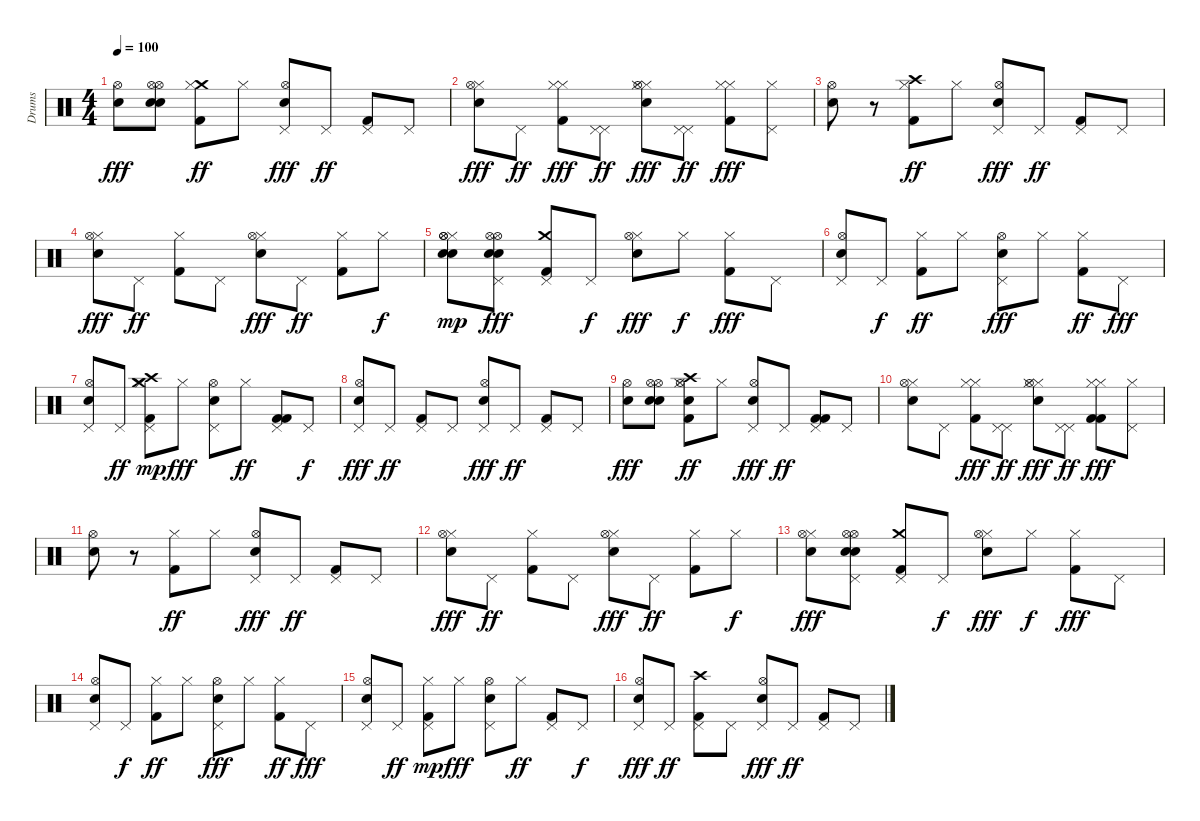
\track ("Drums" "Drums") {instrument percussion}
\staff {score}
\articulation defaults
\ts (4 4)
\tempo 100
\clef neutral
\ks c
("Snare (hit) 2" "Hi-Hat (open)").8{dy fff} ("Snare (hit) 2" "Hi-Hat (open)" "Snare (hit) 2" "Hi-Hat (open)").8 ("Kick (hit) 2" "Crash medium (hit)" "Hi-Hat (closed)").8{dy ff} "Hi-Hat (closed)".8 ("Snare (hit) 2" "Pedal Hi-Hat (hit)" "Hi-Hat (open)").8{dy fff} "Pedal Hi-Hat (hit)".8{dy ff} ("Kick (hit) 2" "Pedal Hi-Hat (hit)").8 "Pedal Hi-Hat (hit)".8 |
("Snare (hit) 2" "Hi-Hat (closed)" "Hi-Hat (open)").8{dy fff} "Pedal Hi-Hat (hit)".8{dy ff} ("Kick (hit) 2" "Hi-Hat (closed)" "Hi-Hat (closed)").8{dy fff} ("Pedal Hi-Hat (hit)" "Pedal Hi-Hat (hit)").8{dy ff} ("Snare (hit) 2" "Hi-Hat (closed)" "Hi-Hat (closed)" "Hi-Hat (open)").8{dy fff} ("Pedal Hi-Hat (hit)" "Pedal Hi-Hat (hit)").8{dy ff} ("Kick (hit) 2" "Hi-Hat (closed)" "Hi-Hat (closed)").8{dy fff} ("Hi-Hat (closed)" "Pedal Hi-Hat (hit)").8 |
("Snare (hit) 2" "Hi-Hat (open)").8 r.8 ("Kick (hit) 2" "Crash high (hit)" "Hi-Hat (closed)").8{dy ff} "Hi-Hat (closed)".8 ("Snare (hit) 2" "Pedal Hi-Hat (hit)" "Hi-Hat (open)").8{dy fff} "Pedal Hi-Hat (hit)".8{dy ff} ("Kick (hit) 2" "Pedal Hi-Hat (hit)").8 "Pedal Hi-Hat (hit)".8 |
("Snare (hit) 2" "Hi-Hat (closed)" "Hi-Hat (open)").8{dy fff} "Pedal Hi-Hat (hit)".8{dy ff} ("Kick (hit) 2" "Hi-Hat (closed)").8 "Pedal Hi-Hat (hit)".8 ("Snare (hit) 2" "Hi-Hat (closed)" "Hi-Hat (open)").8{dy fff} "Pedal Hi-Hat (hit)".8{dy ff} ("Kick (hit) 2" "Hi-Hat (closed)").8 "Hi-Hat (closed)".8{dy f} |
("Snare (hit) 2" "Hi-Hat (closed)" "Hi-Hat (open)" "Snare (hit) 2" "Hi-Hat (open)").8{dy mp} ("Snare (hit) 2" "Pedal Hi-Hat (hit)" "Hi-Hat (open)" "Snare (hit) 2" "Hi-Hat (open)").8{dy fff} ("Kick (hit) 2" "Crash medium (hit)" "Pedal Hi-Hat (hit)").8 "Pedal Hi-Hat (hit)".8{dy f} ("Snare (hit) 2" "Hi-Hat (closed)" "Hi-Hat (open)").8{dy fff} "Hi-Hat (closed)".8{dy f} ("Kick (hit) 2" "Hi-Hat (closed)").8{dy fff} "Pedal Hi-Hat (hit)".8 |
("Snare (hit) 2" "Pedal Hi-Hat (hit)" "Hi-Hat (open)").8 "Pedal Hi-Hat (hit)".8{dy f} ("Kick (hit) 2" "Hi-Hat (closed)").8{dy ff} "Hi-Hat (closed)".8 ("Snare (hit) 2" "Pedal Hi-Hat (hit)" "Hi-Hat (open)").8{dy fff} "Hi-Hat (closed)".8 ("Kick (hit) 2" "Hi-Hat (closed)").8{dy ff} "Pedal Hi-Hat (hit)".8{dy fff} |
("Snare (hit) 2" "Pedal Hi-Hat (hit)" "Hi-Hat (open)").8 "Pedal Hi-Hat (hit)".8{dy ff} ("Kick (hit) 2" "Crash medium (hit)" "Crash high (hit)" "Hi-Hat (closed)" "Pedal Hi-Hat (hit)").8{dy mp} "Hi-Hat (closed)".8{dy fff} ("Snare (hit) 2" "Pedal Hi-Hat (hit)" "Hi-Hat (open)").8 "Hi-Hat (closed)".8{dy ff} ("Kick (hit) 2" "Kick (hit) 2" "Pedal Hi-Hat (hit)").8 "Pedal Hi-Hat (hit)".8{dy f} |
("Snare (hit) 2" "Pedal Hi-Hat (hit)" "Hi-Hat (open)").8{dy fff} "Pedal Hi-Hat (hit)".8{dy ff} ("Kick (hit) 2" "Pedal Hi-Hat (hit)").8 "Pedal Hi-Hat (hit)".8 ("Snare (hit) 2" "Pedal Hi-Hat (hit)" "Hi-Hat (open)").8{dy fff} "Pedal Hi-Hat (hit)".8{dy ff} ("Kick (hit) 2" "Pedal Hi-Hat (hit)").8 "Pedal Hi-Hat (hit)".8 |
("Snare (hit) 2" "Hi-Hat (open)").8{dy fff} ("Snare (hit) 2" "Hi-Hat (open)" "Snare (hit) 2" "Hi-Hat (open)").8 ("Snare (hit) 2" "Kick (hit) 2" "Crash high (hit)" "Hi-Hat (closed)" "Hi-Hat (open)").8{dy ff} "Hi-Hat (closed)".8 ("Snare (hit) 2" "Pedal Hi-Hat (hit)" "Hi-Hat (open)").8{dy fff} "Pedal Hi-Hat (hit)".8{dy ff} ("Kick (hit) 2" "Kick (hit) 2" "Pedal Hi-Hat (hit)").8 "Pedal Hi-Hat (hit)".8 |
("Snare (hit) 2" "Hi-Hat (closed)" "Hi-Hat (open)").8 "Pedal Hi-Hat (hit)".8 ("Kick (hit) 2" "Hi-Hat (closed)" "Hi-Hat (closed)").8{dy fff} ("Pedal Hi-Hat (hit)" "Pedal Hi-Hat (hit)").8{dy ff} ("Snare (hit) 2" "Hi-Hat (closed)" "Hi-Hat (closed)" "Hi-Hat (open)").8{dy fff} ("Pedal Hi-Hat (hit)" "Pedal Hi-Hat (hit)").8{dy ff} ("Kick (hit) 2" "Kick (hit) 2" "Hi-Hat (closed)" "Hi-Hat (closed)").8{dy fff} ("Hi-Hat (closed)" "Pedal Hi-Hat (hit)").8 |
("Snare (hit) 2" "Hi-Hat (open)").8 r.8 ("Kick (hit) 2" "Hi-Hat (closed)").8{dy ff} "Hi-Hat (closed)".8 ("Snare (hit) 2" "Pedal Hi-Hat (hit)" "Hi-Hat (open)").8{dy fff} "Pedal Hi-Hat (hit)".8{dy ff} ("Kick (hit) 2" "Pedal Hi-Hat (hit)").8 "Pedal Hi-Hat (hit)".8 |
("Snare (hit) 2" "Hi-Hat (closed)" "Hi-Hat (open)").8{dy fff} "Pedal Hi-Hat (hit)".8{dy ff} ("Kick (hit) 2" "Hi-Hat (closed)").8 "Pedal Hi-Hat (hit)".8 ("Snare (hit) 2" "Hi-Hat (closed)" "Hi-Hat (open)").8{dy fff} "Pedal Hi-Hat (hit)".8{dy ff} ("Kick (hit) 2" "Hi-Hat (closed)").8 "Hi-Hat (closed)".8{dy f} |
("Snare (hit) 2" "Hi-Hat (closed)" "Hi-Hat (open)").8{dy fff} ("Snare (hit) 2" "Pedal Hi-Hat (hit)" "Hi-Hat (open)" "Snare (hit) 2" "Hi-Hat (open)").8 ("Kick (hit) 2" "Crash medium (hit)" "Pedal Hi-Hat (hit)").8 "Pedal Hi-Hat (hit)".8{dy f} ("Snare (hit) 2" "Hi-Hat (closed)" "Hi-Hat (open)").8{dy fff} "Hi-Hat (closed)".8{dy f} ("Kick (hit) 2" "Hi-Hat (closed)").8{dy fff} "Pedal Hi-Hat (hit)".8 |
("Snare (hit) 2" "Pedal Hi-Hat (hit)" "Hi-Hat (open)").8 "Pedal Hi-Hat (hit)".8{dy f} ("Kick (hit) 2" "Hi-Hat (closed)").8{dy ff} "Hi-Hat (closed)".8 ("Snare (hit) 2" "Pedal Hi-Hat (hit)" "Hi-Hat (open)").8{dy fff} "Hi-Hat (closed)".8 ("Kick (hit) 2" "Hi-Hat (closed)").8{dy ff} "Pedal Hi-Hat (hit)".8{dy fff} |
("Snare (hit) 2" "Pedal Hi-Hat (hit)" "Hi-Hat (open)").8 "Pedal Hi-Hat (hit)".8{dy ff} ("Kick (hit) 2" "Hi-Hat (closed)" "Pedal Hi-Hat (hit)").8{dy mp} "Hi-Hat (closed)".8{dy fff} ("Snare (hit) 2" "Pedal Hi-Hat (hit)" "Hi-Hat (open)").8 "Hi-Hat (closed)".8{dy ff} ("Kick (hit) 2" "Pedal Hi-Hat (hit)").8 "Pedal Hi-Hat (hit)".8{dy f} |
("Snare (hit) 2" "Pedal Hi-Hat (hit)" "Hi-Hat (open)").8{dy fff} "Pedal Hi-Hat (hit)".8{dy ff} ("Kick (hit) 2" "Crash high (hit)" "Pedal Hi-Hat (hit)").8 "Pedal Hi-Hat (hit)".8 ("Snare (hit) 2" "Pedal Hi-Hat (hit)" "Hi-Hat (open)").8{dy fff} "Pedal Hi-Hat (hit)".8{dy ff} ("Kick (hit) 2" "Pedal Hi-Hat (hit)").8 "Pedal Hi-Hat (hit)".8
